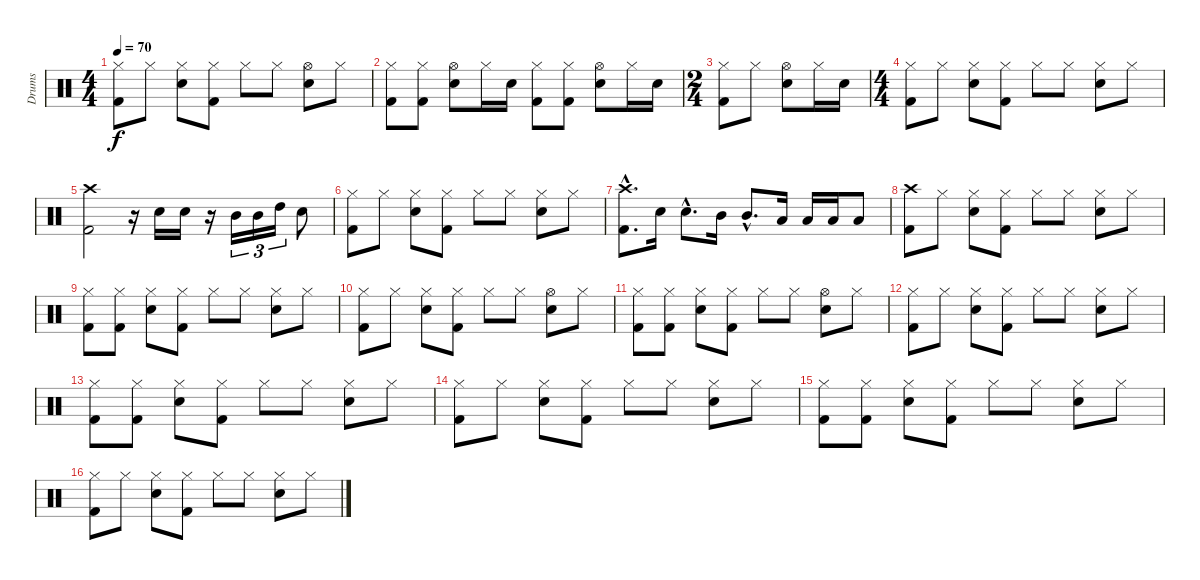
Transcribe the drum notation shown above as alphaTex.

\track ("Drums" "Drums") {instrument percussion}
\staff {score}
\articulation defaults
\ts (4 4)
\tempo 70
\clef neutral
\ks c
("Hi-Hat (closed)" "Kick (hit) 2").8{dy f} "Hi-Hat (closed)".8 ("Hi-Hat (closed)" "Snare (hit) 2").8 ("Hi-Hat (closed)" "Kick (hit) 2").8 "Hi-Hat (closed)".8 "Hi-Hat (closed)".8 ("Hi-Hat (open)" "Snare (hit) 2").8 "Hi-Hat (closed)".8 |
("Hi-Hat (closed)" "Kick (hit) 2").8 ("Hi-Hat (closed)" "Kick (hit) 2").8 ("Hi-Hat (open)" "Snare (hit) 2").8 "Hi-Hat (closed)".16 "Snare (hit) 2".16 ("Hi-Hat (closed)" "Kick (hit) 2").8 ("Hi-Hat (closed)" "Kick (hit) 2").8 ("Hi-Hat (open)" "Snare (hit) 2").8 "Hi-Hat (closed)".16 "Snare (hit) 2".16 |
\ts (2 4)
("Hi-Hat (closed)" "Kick (hit) 2").8 "Hi-Hat (closed)".8 ("Hi-Hat (open)" "Snare (hit) 2").8 "Hi-Hat (closed)".16 "Snare (hit) 2".16 |
\ts (4 4)
("Hi-Hat (closed)" "Kick (hit) 2").8 "Hi-Hat (closed)".8 ("Hi-Hat (closed)" "Snare (hit) 2").8 ("Hi-Hat (closed)" "Kick (hit) 2").8 "Hi-Hat (closed)".8 "Hi-Hat (closed)".8 ("Hi-Hat (closed)" "Snare (hit) 2").8 "Hi-Hat (closed)".8 |
("Crash high (hit)" "Kick (hit) 2").2 r.16 "Snare (hit) 2".16 "Snare (hit) 2".16 r.16 "Mid Tom (hit)".16{tu (3 2)} "Mid Tom (hit)".16{tu (3 2)} "High Tom (hit)".16{tu (3 2)} "Snare (hit) 2".8 |
("Hi-Hat (closed)" "Kick (hit) 2").8 "Hi-Hat (closed)".8 ("Hi-Hat (closed)" "Snare (hit) 2").8 ("Hi-Hat (closed)" "Kick (hit) 2").8 "Hi-Hat (closed)".8 "Hi-Hat (closed)".8 ("Hi-Hat (closed)" "Snare (hit) 2").8 "Hi-Hat (closed)".8 |
("Crash high (hit)"{hac} "Kick (hit) 2"{hac}).8{d} "Snare (hit) 2".16 "Snare (hit) 2"{hac}.8{d} "Mid Tom (hit)".16 "Mid Tom (hit)"{hac}.8{d} "Low Tom (hit)".16 "Low Tom (hit)".16 "Low Tom (hit)".16 "Low Tom (hit)".8 |
("Crash high (hit)" "Kick (hit) 2").8 "Hi-Hat (closed)".8 ("Hi-Hat (closed)" "Snare (hit) 2").8 ("Hi-Hat (closed)" "Kick (hit) 2").8 "Hi-Hat (closed)".8 "Hi-Hat (closed)".8 ("Hi-Hat (closed)" "Snare (hit) 2").8 "Hi-Hat (closed)".8 |
("Hi-Hat (closed)" "Kick (hit) 2").8 ("Hi-Hat (closed)" "Kick (hit) 2").8 ("Hi-Hat (closed)" "Snare (hit) 2").8 ("Hi-Hat (closed)" "Kick (hit) 2").8 "Hi-Hat (closed)".8 "Hi-Hat (closed)".8 ("Hi-Hat (closed)" "Snare (hit) 2").8 "Hi-Hat (closed)".8 |
("Hi-Hat (closed)" "Kick (hit) 2").8 "Hi-Hat (closed)".8 ("Hi-Hat (closed)" "Snare (hit) 2").8 ("Hi-Hat (closed)" "Kick (hit) 2").8 "Hi-Hat (closed)".8 "Hi-Hat (closed)".8 ("Hi-Hat (open)" "Snare (hit) 2").8 "Hi-Hat (closed)".8 |
("Hi-Hat (closed)" "Kick (hit) 2").8 ("Hi-Hat (closed)" "Kick (hit) 2").8 ("Hi-Hat (closed)" "Snare (hit) 2").8 ("Hi-Hat (closed)" "Kick (hit) 2").8 "Hi-Hat (closed)".8 "Hi-Hat (closed)".8 ("Hi-Hat (open)" "Snare (hit) 2").8 "Hi-Hat (closed)".8 |
("Hi-Hat (closed)" "Kick (hit) 2").8 "Hi-Hat (closed)".8 ("Hi-Hat (closed)" "Snare (hit) 2").8 ("Hi-Hat (closed)" "Kick (hit) 2").8 "Hi-Hat (closed)".8 "Hi-Hat (closed)".8 ("Hi-Hat (closed)" "Snare (hit) 2").8 "Hi-Hat (closed)".8 |
("Hi-Hat (closed)" "Kick (hit) 2").8 ("Hi-Hat (closed)" "Kick (hit) 2").8 ("Hi-Hat (closed)" "Snare (hit) 2").8 ("Hi-Hat (closed)" "Kick (hit) 2").8 "Hi-Hat (closed)".8 "Hi-Hat (closed)".8 ("Hi-Hat (closed)" "Snare (hit) 2").8 "Hi-Hat (closed)".8 |
("Hi-Hat (closed)" "Kick (hit) 2").8{volume 14} "Hi-Hat (closed)".8 ("Hi-Hat (closed)" "Snare (hit) 2").8 ("Hi-Hat (closed)" "Kick (hit) 2").8 "Hi-Hat (closed)".8 "Hi-Hat (closed)".8 ("Hi-Hat (closed)" "Snare (hit) 2").8 "Hi-Hat (closed)".8 |
("Hi-Hat (closed)" "Kick (hit) 2").8{volume 12} ("Hi-Hat (closed)" "Kick (hit) 2").8 ("Hi-Hat (closed)" "Snare (hit) 2").8 ("Hi-Hat (closed)" "Kick (hit) 2").8 "Hi-Hat (closed)".8 "Hi-Hat (closed)".8 ("Hi-Hat (closed)" "Snare (hit) 2").8 "Hi-Hat (closed)".8 |
("Hi-Hat (closed)" "Kick (hit) 2").8{volume 10} "Hi-Hat (closed)".8 ("Hi-Hat (closed)" "Snare (hit) 2").8 ("Hi-Hat (closed)" "Kick (hit) 2").8 "Hi-Hat (closed)".8 "Hi-Hat (closed)".8 ("Hi-Hat (closed)" "Snare (hit) 2").8 "Hi-Hat (closed)".8
